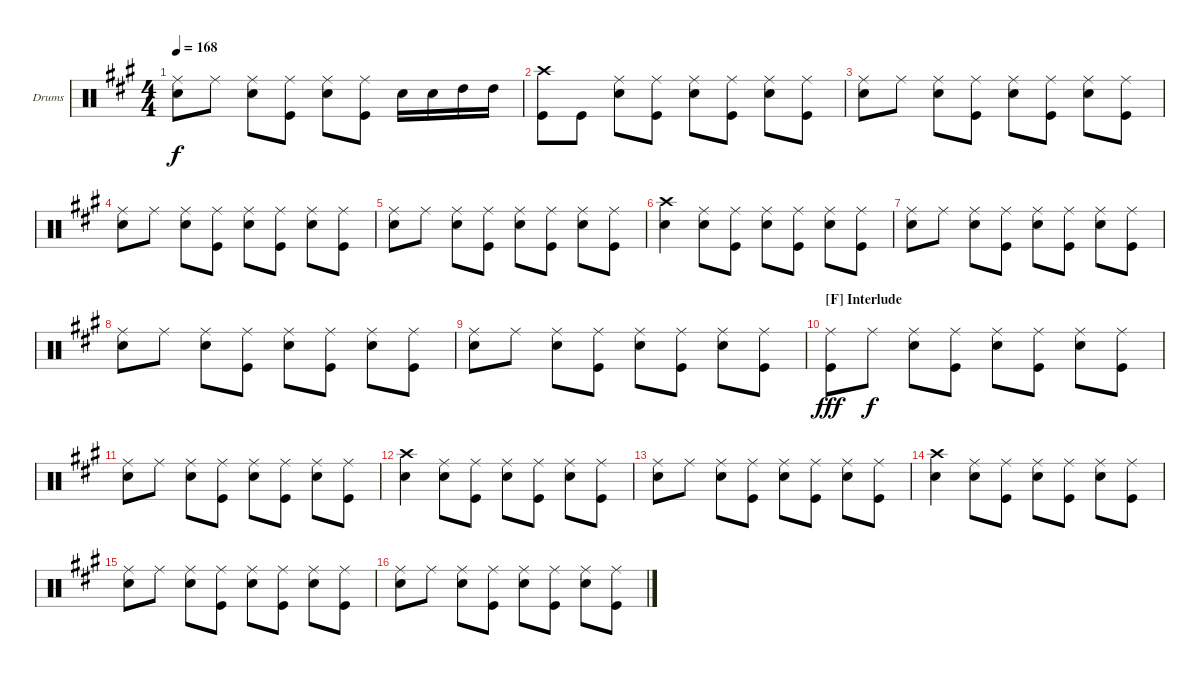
\defaultSystemsLayout 4
\bracketExtendMode groupsimilarinstruments
\firstSystemTrackNameOrientation horizontal
\otherSystemsTrackNameOrientation horizontal
\track ("Drumkit" "Drums") {instrument percussion}
\staff {score}
\articulation defaults
\ts (4 4)
\tempo 168
\clef neutral
\scale
1.05801
\ks a
("Ride (middle)" "Snare (hit) 2").8{dy f} "Ride (middle)".8 ("Ride (middle)" "Snare (hit) 2").8 ("Ride (middle)" "Kick (hit)").8 ("Ride (middle)" "Snare (hit) 2").8 ("Ride (middle)" "Kick (hit)").8 "Snare (hit) 2".16 "Snare (hit) 2".16 "High Tom (hit)".16 "High Tom (hit)".16 |
\scale
0.941992 ("Crash high (hit)" "Kick (hit)").8 "Kick (hit)".8 ("Ride (middle)" "Snare (hit) 2").8 ("Ride (middle)" "Kick (hit)").8 ("Ride (middle)" "Snare (hit) 2").8 ("Ride (middle)" "Kick (hit)").8 ("Ride (middle)" "Snare (hit) 2").8 ("Ride (middle)" "Kick (hit)").8 |
\scale
1.05801 ("Ride (middle)" "Snare (hit) 2").8 "Ride (middle)".8 ("Ride (middle)" "Snare (hit) 2").8 ("Ride (middle)" "Kick (hit)").8 ("Ride (middle)" "Snare (hit) 2").8 ("Ride (middle)" "Kick (hit)").8 ("Ride (middle)" "Snare (hit) 2").8 ("Ride (middle)" "Kick (hit)").8 |
\scale
0.941992 ("Ride (middle)" "Snare (hit) 2").8 "Ride (middle)".8 ("Ride (middle)" "Snare (hit) 2").8 ("Ride (middle)" "Kick (hit)").8 ("Ride (middle)" "Snare (hit) 2").8 ("Ride (middle)" "Kick (hit)").8 ("Ride (middle)" "Snare (hit) 2").8 ("Ride (middle)" "Kick (hit)").8 |
\scale
1.05801 ("Ride (middle)" "Snare (hit) 2").8 "Ride (middle)".8 ("Ride (middle)" "Snare (hit) 2").8 ("Ride (middle)" "Kick (hit)").8 ("Ride (middle)" "Snare (hit) 2").8 ("Ride (middle)" "Kick (hit)").8 ("Ride (middle)" "Snare (hit) 2").8 ("Ride (middle)" "Kick (hit)").8 |
\scale
0.941992 ("Crash high (hit)" "Snare (hit) 2").4 ("Ride (middle)" "Snare (hit) 2").8 ("Ride (middle)" "Kick (hit)").8 ("Ride (middle)" "Snare (hit) 2").8 ("Ride (middle)" "Kick (hit)").8 ("Ride (middle)" "Snare (hit) 2").8 ("Ride (middle)" "Kick (hit)").8 |
\scale
1.05801 ("Ride (middle)" "Snare (hit) 2").8 "Ride (middle)".8 ("Ride (middle)" "Snare (hit) 2").8 ("Ride (middle)" "Kick (hit)").8 ("Ride (middle)" "Snare (hit) 2").8 ("Ride (middle)" "Kick (hit)").8 ("Ride (middle)" "Snare (hit) 2").8 ("Ride (middle)" "Kick (hit)").8 |
\scale
0.941992 ("Ride (middle)" "Snare (hit) 2").8 "Ride (middle)".8 ("Ride (middle)" "Snare (hit) 2").8 ("Ride (middle)" "Kick (hit)").8 ("Ride (middle)" "Snare (hit) 2").8 ("Ride (middle)" "Kick (hit)").8 ("Ride (middle)" "Snare (hit) 2").8 ("Ride (middle)" "Kick (hit)").8 |
\scale
1.05801 ("Ride (middle)" "Snare (hit) 2").8 "Ride (middle)".8 ("Ride (middle)" "Snare (hit) 2").8 ("Ride (middle)" "Kick (hit)").8 ("Ride (middle)" "Snare (hit) 2").8 ("Ride (middle)" "Kick (hit)").8 ("Ride (middle)" "Snare (hit) 2").8 ("Ride (middle)" "Kick (hit)").8 |
\section ("F" "Interlude")
\scale
0.941992 ("Ride (middle)" "Kick (hit)").8{dy fff} "Ride (middle)".8{dy f} ("Ride (middle)" "Snare (hit) 2").8 ("Ride (middle)" "Kick (hit)").8 ("Ride (middle)" "Snare (hit) 2").8 ("Ride (middle)" "Kick (hit)").8 ("Ride (middle)" "Snare (hit) 2").8 ("Ride (middle)" "Kick (hit)").8 |
\scale
1.05801 ("Ride (middle)" "Snare (hit) 2").8 "Ride (middle)".8 ("Ride (middle)" "Snare (hit) 2").8 ("Ride (middle)" "Kick (hit)").8 ("Ride (middle)" "Snare (hit) 2").8 ("Ride (middle)" "Kick (hit)").8 ("Ride (middle)" "Snare (hit) 2").8 ("Ride (middle)" "Kick (hit)").8 |
\scale
0.941992 ("Crash high (hit)" "Snare (hit) 2").4 ("Ride (middle)" "Snare (hit) 2").8 ("Ride (middle)" "Kick (hit)").8 ("Ride (middle)" "Snare (hit) 2").8 ("Ride (middle)" "Kick (hit)").8 ("Ride (middle)" "Snare (hit) 2").8 ("Ride (middle)" "Kick (hit)").8 |
\scale
1.05801 ("Ride (middle)" "Snare (hit) 2").8 "Ride (middle)".8 ("Ride (middle)" "Snare (hit) 2").8 ("Ride (middle)" "Kick (hit)").8 ("Ride (middle)" "Snare (hit) 2").8 ("Ride (middle)" "Kick (hit)").8 ("Ride (middle)" "Snare (hit) 2").8 ("Ride (middle)" "Kick (hit)").8 |
\scale
0.941992 ("Crash high (hit)" "Snare (hit) 2").4 ("Ride (middle)" "Snare (hit) 2").8 ("Ride (middle)" "Kick (hit)").8 ("Ride (middle)" "Snare (hit) 2").8 ("Ride (middle)" "Kick (hit)").8 ("Ride (middle)" "Snare (hit) 2").8 ("Ride (middle)" "Kick (hit)").8 |
\scale
1.05801 ("Ride (middle)" "Snare (hit) 2").8 "Ride (middle)".8 ("Ride (middle)" "Snare (hit) 2").8 ("Ride (middle)" "Kick (hit)").8 ("Ride (middle)" "Snare (hit) 2").8 ("Ride (middle)" "Kick (hit)").8 ("Ride (middle)" "Snare (hit) 2").8 ("Ride (middle)" "Kick (hit)").8 |
\scale
0.941992 ("Ride (middle)" "Snare (hit) 2").8 "Ride (middle)".8 ("Ride (middle)" "Snare (hit) 2").8 ("Ride (middle)" "Kick (hit)").8 ("Ride (middle)" "Snare (hit) 2").8 ("Ride (middle)" "Kick (hit)").8 ("Ride (middle)" "Snare (hit) 2").8 ("Ride (middle)" "Kick (hit)").8
